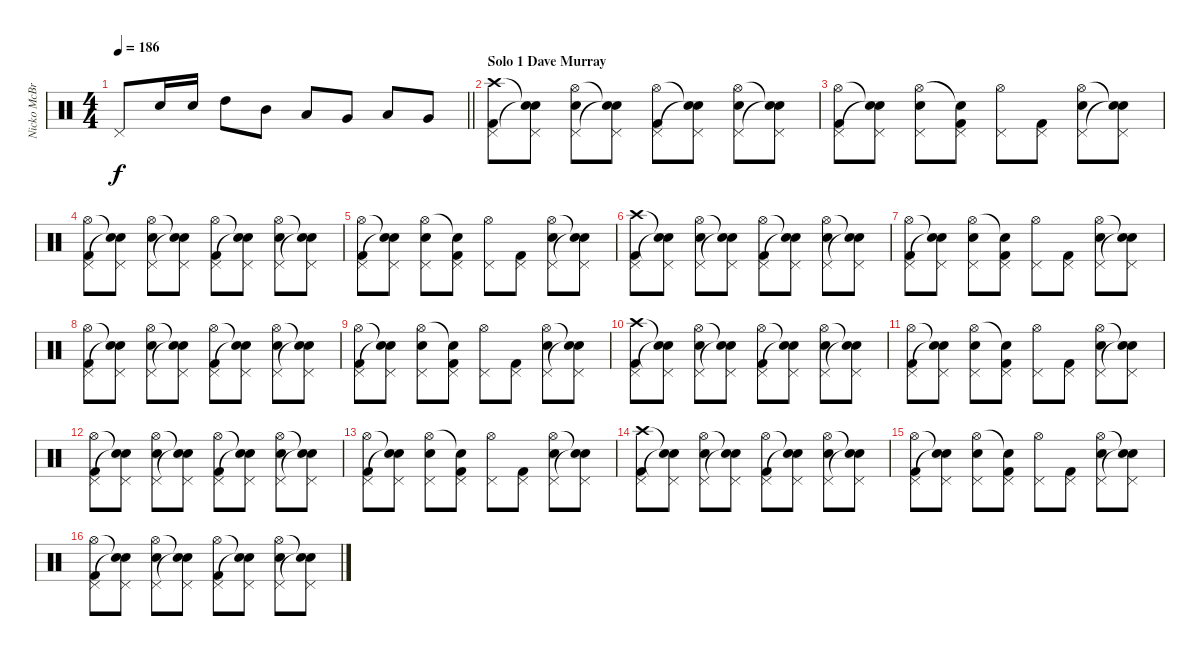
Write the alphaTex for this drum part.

\track ("Nicko McBrain" "Nicko McBr") {instrument percussion}
\staff {score}
\articulation defaults
\ts (4 4)
\tempo 186
\clef neutral
\barLineRight lightlight
\ks c "Pedal Hi-Hat (hit)".8{dy f} "Snare (hit) 2".16 "Snare (hit) 2".16 "High Tom (hit)".8 "Mid Tom (hit)".8 "Low Tom (hit)".8 "Very Low Tom (hit)".8 "Low Floor Tom (hit)".8 "Very Low Tom (hit)".8
|
\section ("" "Solo 1 Dave Murray")
("Kick (hit) 2" "Pedal Hi-Hat (hit)" "Crash high (hit)").8 ("Pedal Hi-Hat (hit)" "Snare (hit)"{t} "Snare (hit)"{t}).8 ("Snare (hit) 2" "Pedal Hi-Hat (hit)" "Hi-Hat (open)").8 ("Pedal Hi-Hat (hit)" "Snare (hit)"{t} "Snare (hit)"{t}).8 ("Kick (hit) 2" "Pedal Hi-Hat (hit)" "Hi-Hat (open)").8 ("Pedal Hi-Hat (hit)" "Snare (hit)"{t} "Snare (hit)"{t}).8 ("Snare (hit) 2" "Pedal Hi-Hat (hit)" "Hi-Hat (open)").8 ("Pedal Hi-Hat (hit)" "Snare (hit)"{t} "Snare (hit)"{t}).8 |
("Kick (hit) 2" "Pedal Hi-Hat (hit)" "Hi-Hat (open)").8 ("Pedal Hi-Hat (hit)" "Snare (hit)"{t} "Snare (hit)"{t}).8 ("Snare (hit) 2" "Pedal Hi-Hat (hit)" "Hi-Hat (open)").8 ("Kick (hit) 2" "Pedal Hi-Hat (hit)" "Snare (hit)"{t}).8 ("Pedal Hi-Hat (hit)" "Hi-Hat (open)").8 ("Kick (hit) 2" "Pedal Hi-Hat (hit)").8 ("Snare (hit) 2" "Pedal Hi-Hat (hit)" "Hi-Hat (open)").8 ("Pedal Hi-Hat (hit)" "Snare (hit)"{t} "Snare (hit)"{t}).8 |
("Kick (hit) 2" "Pedal Hi-Hat (hit)" "Hi-Hat (open)").8 ("Pedal Hi-Hat (hit)" "Snare (hit)"{t} "Snare (hit)"{t}).8 ("Snare (hit) 2" "Pedal Hi-Hat (hit)" "Hi-Hat (open)").8 ("Pedal Hi-Hat (hit)" "Snare (hit)"{t} "Snare (hit)"{t}).8 ("Kick (hit) 2" "Pedal Hi-Hat (hit)" "Hi-Hat (open)").8 ("Pedal Hi-Hat (hit)" "Snare (hit)"{t} "Snare (hit)"{t}).8 ("Snare (hit) 2" "Pedal Hi-Hat (hit)" "Hi-Hat (open)").8 ("Pedal Hi-Hat (hit)" "Snare (hit)"{t} "Snare (hit)"{t}).8 |
("Kick (hit) 2" "Pedal Hi-Hat (hit)" "Hi-Hat (open)").8 ("Pedal Hi-Hat (hit)" "Snare (hit)"{t} "Snare (hit)"{t}).8 ("Snare (hit) 2" "Pedal Hi-Hat (hit)" "Hi-Hat (open)").8 ("Kick (hit) 2" "Pedal Hi-Hat (hit)" "Snare (hit)"{t}).8 ("Pedal Hi-Hat (hit)" "Hi-Hat (open)").8 ("Kick (hit) 2" "Pedal Hi-Hat (hit)").8 ("Snare (hit) 2" "Pedal Hi-Hat (hit)" "Hi-Hat (open)").8 ("Pedal Hi-Hat (hit)" "Snare (hit)"{t} "Snare (hit)"{t}).8 |
("Kick (hit) 2" "Pedal Hi-Hat (hit)" "Crash high (hit)").8 ("Pedal Hi-Hat (hit)" "Snare (hit)"{t} "Snare (hit)"{t}).8 ("Snare (hit) 2" "Pedal Hi-Hat (hit)" "Hi-Hat (open)").8 ("Pedal Hi-Hat (hit)" "Snare (hit)"{t} "Snare (hit)"{t}).8 ("Kick (hit) 2" "Pedal Hi-Hat (hit)" "Hi-Hat (open)").8 ("Pedal Hi-Hat (hit)" "Snare (hit)"{t} "Snare (hit)"{t}).8 ("Snare (hit) 2" "Pedal Hi-Hat (hit)" "Hi-Hat (open)").8 ("Pedal Hi-Hat (hit)" "Snare (hit)"{t} "Snare (hit)"{t}).8 |
("Kick (hit) 2" "Pedal Hi-Hat (hit)" "Hi-Hat (open)").8 ("Pedal Hi-Hat (hit)" "Snare (hit)"{t} "Snare (hit)"{t}).8 ("Snare (hit) 2" "Pedal Hi-Hat (hit)" "Hi-Hat (open)").8 ("Kick (hit) 2" "Pedal Hi-Hat (hit)" "Snare (hit)"{t}).8 ("Pedal Hi-Hat (hit)" "Hi-Hat (open)").8 ("Kick (hit) 2" "Pedal Hi-Hat (hit)").8 ("Snare (hit) 2" "Pedal Hi-Hat (hit)" "Hi-Hat (open)").8 ("Pedal Hi-Hat (hit)" "Snare (hit)"{t} "Snare (hit)"{t}).8 |
("Kick (hit) 2" "Pedal Hi-Hat (hit)" "Hi-Hat (open)").8 ("Pedal Hi-Hat (hit)" "Snare (hit)"{t} "Snare (hit)"{t}).8 ("Snare (hit) 2" "Pedal Hi-Hat (hit)" "Hi-Hat (open)").8 ("Pedal Hi-Hat (hit)" "Snare (hit)"{t} "Snare (hit)"{t}).8 ("Kick (hit) 2" "Pedal Hi-Hat (hit)" "Hi-Hat (open)").8 ("Pedal Hi-Hat (hit)" "Snare (hit)"{t} "Snare (hit)"{t}).8 ("Snare (hit) 2" "Pedal Hi-Hat (hit)" "Hi-Hat (open)").8 ("Pedal Hi-Hat (hit)" "Snare (hit)"{t} "Snare (hit)"{t}).8 |
("Kick (hit) 2" "Pedal Hi-Hat (hit)" "Hi-Hat (open)").8 ("Pedal Hi-Hat (hit)" "Snare (hit)"{t} "Snare (hit)"{t}).8 ("Snare (hit) 2" "Pedal Hi-Hat (hit)" "Hi-Hat (open)").8 ("Kick (hit) 2" "Pedal Hi-Hat (hit)" "Snare (hit)"{t}).8 ("Pedal Hi-Hat (hit)" "Hi-Hat (open)").8 ("Kick (hit) 2" "Pedal Hi-Hat (hit)").8 ("Snare (hit) 2" "Pedal Hi-Hat (hit)" "Hi-Hat (open)").8 ("Pedal Hi-Hat (hit)" "Snare (hit)"{t} "Snare (hit)"{t}).8 |
("Kick (hit) 2" "Pedal Hi-Hat (hit)" "Crash high (hit)").8 ("Pedal Hi-Hat (hit)" "Snare (hit)"{t} "Snare (hit)"{t}).8 ("Snare (hit) 2" "Pedal Hi-Hat (hit)" "Hi-Hat (open)").8 ("Pedal Hi-Hat (hit)" "Snare (hit)"{t} "Snare (hit)"{t}).8 ("Kick (hit) 2" "Pedal Hi-Hat (hit)" "Hi-Hat (open)").8 ("Pedal Hi-Hat (hit)" "Snare (hit)"{t} "Snare (hit)"{t}).8 ("Snare (hit) 2" "Pedal Hi-Hat (hit)" "Hi-Hat (open)").8 ("Pedal Hi-Hat (hit)" "Snare (hit)"{t} "Snare (hit)"{t}).8 |
("Kick (hit) 2" "Pedal Hi-Hat (hit)" "Hi-Hat (open)").8 ("Pedal Hi-Hat (hit)" "Snare (hit)"{t} "Snare (hit)"{t}).8 ("Snare (hit) 2" "Pedal Hi-Hat (hit)" "Hi-Hat (open)").8 ("Kick (hit) 2" "Pedal Hi-Hat (hit)" "Snare (hit)"{t}).8 ("Pedal Hi-Hat (hit)" "Hi-Hat (open)").8 ("Kick (hit) 2" "Pedal Hi-Hat (hit)").8 ("Snare (hit) 2" "Pedal Hi-Hat (hit)" "Hi-Hat (open)").8 ("Pedal Hi-Hat (hit)" "Snare (hit)"{t} "Snare (hit)"{t}).8 |
("Kick (hit) 2" "Pedal Hi-Hat (hit)" "Hi-Hat (open)").8 ("Pedal Hi-Hat (hit)" "Snare (hit)"{t} "Snare (hit)"{t}).8 ("Snare (hit) 2" "Pedal Hi-Hat (hit)" "Hi-Hat (open)").8 ("Pedal Hi-Hat (hit)" "Snare (hit)"{t} "Snare (hit)"{t}).8 ("Kick (hit) 2" "Pedal Hi-Hat (hit)" "Hi-Hat (open)").8 ("Pedal Hi-Hat (hit)" "Snare (hit)"{t} "Snare (hit)"{t}).8 ("Snare (hit) 2" "Pedal Hi-Hat (hit)" "Hi-Hat (open)").8 ("Pedal Hi-Hat (hit)" "Snare (hit)"{t} "Snare (hit)"{t}).8 |
("Kick (hit) 2" "Pedal Hi-Hat (hit)" "Hi-Hat (open)").8 ("Pedal Hi-Hat (hit)" "Snare (hit)"{t} "Snare (hit)"{t}).8 ("Snare (hit) 2" "Pedal Hi-Hat (hit)" "Hi-Hat (open)").8 ("Kick (hit) 2" "Pedal Hi-Hat (hit)" "Snare (hit)"{t}).8 ("Pedal Hi-Hat (hit)" "Hi-Hat (open)").8 ("Kick (hit) 2" "Pedal Hi-Hat (hit)").8 ("Snare (hit) 2" "Pedal Hi-Hat (hit)" "Hi-Hat (open)").8 ("Pedal Hi-Hat (hit)" "Snare (hit)"{t} "Snare (hit)"{t}).8 |
("Kick (hit) 2" "Pedal Hi-Hat (hit)" "Crash high (hit)").8 ("Pedal Hi-Hat (hit)" "Snare (hit)"{t} "Snare (hit)"{t}).8 ("Snare (hit) 2" "Pedal Hi-Hat (hit)" "Hi-Hat (open)").8 ("Pedal Hi-Hat (hit)" "Snare (hit)"{t} "Snare (hit)"{t}).8 ("Kick (hit) 2" "Pedal Hi-Hat (hit)" "Hi-Hat (open)").8 ("Pedal Hi-Hat (hit)" "Snare (hit)"{t} "Snare (hit)"{t}).8 ("Snare (hit) 2" "Pedal Hi-Hat (hit)" "Hi-Hat (open)").8 ("Pedal Hi-Hat (hit)" "Snare (hit)"{t} "Snare (hit)"{t}).8 |
("Kick (hit) 2" "Pedal Hi-Hat (hit)" "Hi-Hat (open)").8 ("Pedal Hi-Hat (hit)" "Snare (hit)"{t} "Snare (hit)"{t}).8 ("Snare (hit) 2" "Pedal Hi-Hat (hit)" "Hi-Hat (open)").8 ("Kick (hit) 2" "Pedal Hi-Hat (hit)" "Snare (hit)"{t}).8 ("Pedal Hi-Hat (hit)" "Hi-Hat (open)").8 ("Kick (hit) 2" "Pedal Hi-Hat (hit)").8 ("Snare (hit) 2" "Pedal Hi-Hat (hit)" "Hi-Hat (open)").8 ("Pedal Hi-Hat (hit)" "Snare (hit)"{t} "Snare (hit)"{t}).8 |
("Kick (hit) 2" "Pedal Hi-Hat (hit)" "Hi-Hat (open)").8 ("Pedal Hi-Hat (hit)" "Snare (hit)"{t} "Snare (hit)"{t}).8 ("Snare (hit) 2" "Pedal Hi-Hat (hit)" "Hi-Hat (open)").8 ("Pedal Hi-Hat (hit)" "Snare (hit)"{t} "Snare (hit)"{t}).8 ("Kick (hit) 2" "Pedal Hi-Hat (hit)" "Hi-Hat (open)").8 ("Pedal Hi-Hat (hit)" "Snare (hit)"{t} "Snare (hit)"{t}).8 ("Snare (hit) 2" "Pedal Hi-Hat (hit)" "Hi-Hat (open)").8 ("Pedal Hi-Hat (hit)" "Snare (hit)"{t} "Snare (hit)"{t}).8
